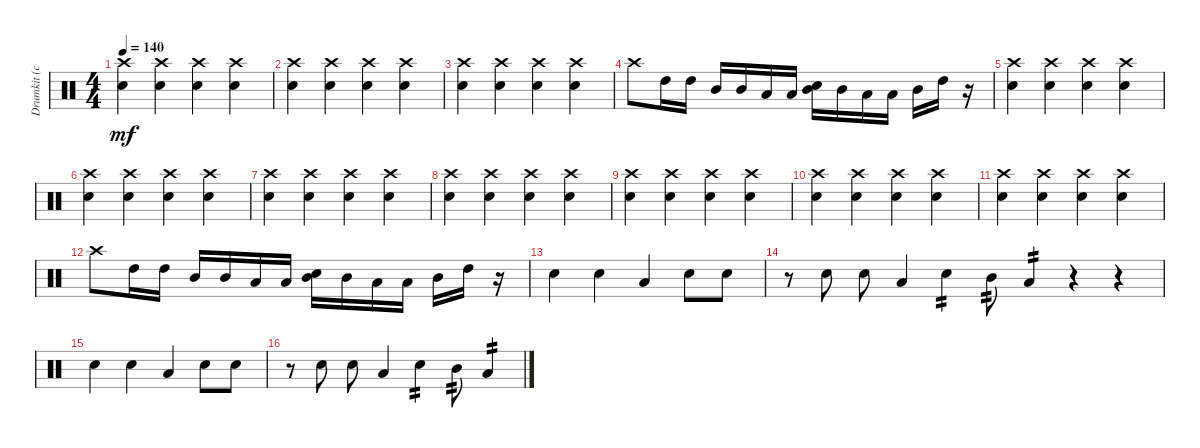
\track ("Drumkit (cymbals)" "Drumkit (c") {instrument percussion}
\staff {score}
\articulation defaults
\ts (4 4)
\tempo 140
\clef neutral
\ks c
("Crash high (hit)" "Snare (hit) 2").4{dy mf} ("Crash high (hit)" "Snare (hit) 2").4 ("Crash high (hit)" "Snare (hit) 2").4 ("Crash high (hit)" "Snare (hit) 2").4 |
("Crash high (hit)" "Snare (hit) 2").4 ("Crash high (hit)" "Snare (hit) 2").4 ("Crash high (hit)" "Snare (hit) 2").4 ("Crash high (hit)" "Snare (hit) 2").4 |
("Crash high (hit)" "Snare (hit) 2").4 ("Crash high (hit)" "Snare (hit) 2").4 ("Crash high (hit)" "Snare (hit) 2").4 ("Crash high (hit)" "Snare (hit) 2").4 |
"Crash high (hit)".8 "High Tom (hit)".16 "High Tom (hit)".16 "Mid Tom (hit)".16 "Mid Tom (hit)".16 "Low Tom (hit)".16 "Low Tom (hit)".16 ("Mid Tom (hit)" "Snare (hit) 2").16 "Mid Tom (hit)".16 "Low Tom (hit)".16 "Low Tom (hit)".16 "Mid Tom (hit)".16 "High Tom (hit)".16 r.16 |
("Crash high (hit)" "Snare (hit) 2").4 ("Crash high (hit)" "Snare (hit) 2").4 ("Crash high (hit)" "Snare (hit) 2").4 ("Crash high (hit)" "Snare (hit) 2").4 |
("Crash high (hit)" "Snare (hit) 2").4 ("Crash high (hit)" "Snare (hit) 2").4 ("Crash high (hit)" "Snare (hit) 2").4 ("Crash high (hit)" "Snare (hit) 2").4 |
("Crash high (hit)" "Snare (hit) 2").4 ("Crash high (hit)" "Snare (hit) 2").4 ("Crash high (hit)" "Snare (hit) 2").4 ("Crash high (hit)" "Snare (hit) 2").4 |
("Crash high (hit)" "Snare (hit) 2").4 ("Crash high (hit)" "Snare (hit) 2").4 ("Crash high (hit)" "Snare (hit) 2").4 ("Crash high (hit)" "Snare (hit) 2").4 |
("Crash high (hit)" "Snare (hit) 2").4 ("Crash high (hit)" "Snare (hit) 2").4 ("Crash high (hit)" "Snare (hit) 2").4 ("Crash high (hit)" "Snare (hit) 2").4 |
("Crash high (hit)" "Snare (hit) 2").4 ("Crash high (hit)" "Snare (hit) 2").4 ("Crash high (hit)" "Snare (hit) 2").4 ("Crash high (hit)" "Snare (hit) 2").4 |
("Crash high (hit)" "Snare (hit) 2").4 ("Crash high (hit)" "Snare (hit) 2").4 ("Crash high (hit)" "Snare (hit) 2").4 ("Crash high (hit)" "Snare (hit) 2").4 |
"Crash high (hit)".8 "High Tom (hit)".16 "High Tom (hit)".16 "Mid Tom (hit)".16 "Mid Tom (hit)".16 "Low Tom (hit)".16 "Low Tom (hit)".16 ("Mid Tom (hit)" "Snare (hit) 2").16 "Mid Tom (hit)".16 "Low Tom (hit)".16 "Low Tom (hit)".16 "Mid Tom (hit)".16 "High Tom (hit)".16 r.16 |
"Snare (hit) 2".4 "Snare (hit) 2".4 "Low Tom (hit)".4 "Snare (hit) 2".8 "Snare (hit) 2".8 |
r.8 "Snare (hit) 2".8 "Snare (hit) 2".8 "Low Tom (hit)".4 "Snare (hit) 2".4{tp 2} "Mid Tom (hit)".8{tp 2} "Low Tom (hit)".4{tp 2} r.4 r.4 |
"Snare (hit) 2".4 "Snare (hit) 2".4 "Low Tom (hit)".4 "Snare (hit) 2".8 "Snare (hit) 2".8 |
r.8 "Snare (hit) 2".8 "Snare (hit) 2".8 "Low Tom (hit)".4 "Snare (hit) 2".4{tp 2} "Mid Tom (hit)".8{tp 2} "Low Tom (hit)".4{tp 2}
